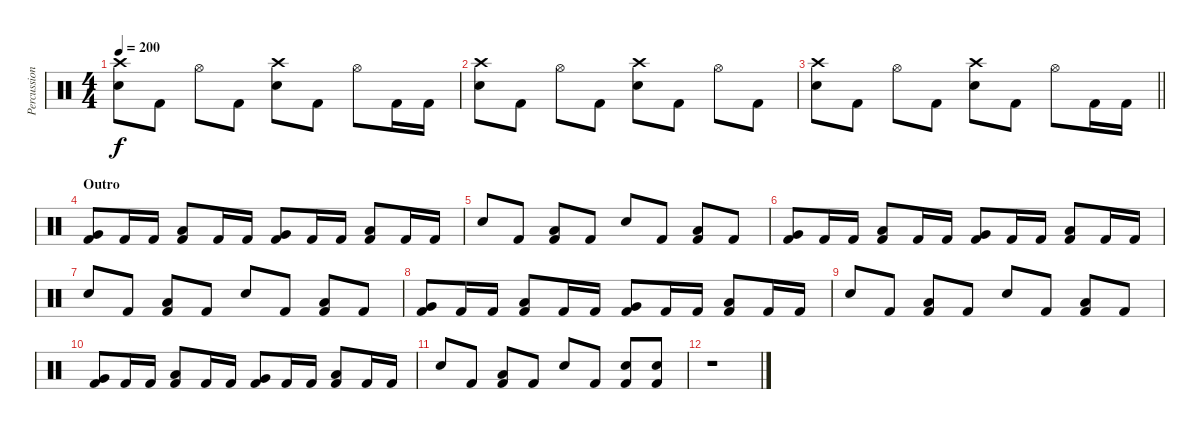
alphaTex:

\track ("Percussion" "Percussion") {instrument percussion}
\staff
\articulation defaults
\ts (4 4)
\tempo 200
\clef neutral
\ks c
("Crash high (hit)" "Electric Snare (hit)").8{dy f} "Kick (hit) 2".8 "Hi-Hat (open)".8 "Kick (hit) 2".8 ("Crash high (hit)" "Electric Snare (hit)").8 "Kick (hit) 2".8 "Hi-Hat (open)".8 "Kick (hit) 2".16 "Kick (hit) 2".16 |
("Crash high (hit)" "Electric Snare (hit)").8 "Kick (hit) 2".8 "Hi-Hat (open)".8 "Kick (hit) 2".8 ("Crash high (hit)" "Electric Snare (hit)").8 "Kick (hit) 2".8 "Hi-Hat (open)".8 "Kick (hit) 2".8 |
\barLineRight lightlight
("Crash high (hit)" "Electric Snare (hit)").8 "Kick (hit) 2".8 "Hi-Hat (open)".8 "Kick (hit) 2".8 ("Crash high (hit)" "Electric Snare (hit)").8 "Kick (hit) 2".8 "Hi-Hat (open)".8 "Kick (hit) 2".16 "Kick (hit) 2".16 |
\section ("" "Outro")
("Very Low Tom (hit)" "Kick (hit) 2").8 "Kick (hit) 2".16 "Kick (hit) 2".16 ("Low Floor Tom (hit)" "Kick (hit) 2").8 "Kick (hit) 2".16 "Kick (hit) 2".16 ("Very Low Tom (hit)" "Kick (hit) 2").8 "Kick (hit) 2".16 "Kick (hit) 2".16 ("Low Floor Tom (hit)" "Kick (hit) 2").8 "Kick (hit) 2".16 "Kick (hit) 2".16 |
"Electric Snare (hit)".8 "Kick (hit) 2".8 ("Low Floor Tom (hit)" "Kick (hit) 2").8 "Kick (hit) 2".8 "Electric Snare (hit)".8 "Kick (hit) 2".8 ("Low Floor Tom (hit)" "Kick (hit) 2").8 "Kick (hit) 2".8 |
("Very Low Tom (hit)" "Kick (hit) 2").8 "Kick (hit) 2".16 "Kick (hit) 2".16 ("Low Floor Tom (hit)" "Kick (hit) 2").8 "Kick (hit) 2".16 "Kick (hit) 2".16 ("Very Low Tom (hit)" "Kick (hit) 2").8 "Kick (hit) 2".16 "Kick (hit) 2".16 ("Low Floor Tom (hit)" "Kick (hit) 2").8 "Kick (hit) 2".16 "Kick (hit) 2".16 |
"Electric Snare (hit)".8 "Kick (hit) 2".8 ("Low Floor Tom (hit)" "Kick (hit) 2").8 "Kick (hit) 2".8 "Electric Snare (hit)".8 "Kick (hit) 2".8 ("Low Floor Tom (hit)" "Kick (hit) 2").8 "Kick (hit) 2".8 |
("Very Low Tom (hit)" "Kick (hit) 2").8 "Kick (hit) 2".16 "Kick (hit) 2".16 ("Low Floor Tom (hit)" "Kick (hit) 2").8 "Kick (hit) 2".16 "Kick (hit) 2".16 ("Very Low Tom (hit)" "Kick (hit) 2").8 "Kick (hit) 2".16 "Kick (hit) 2".16 ("Low Floor Tom (hit)" "Kick (hit) 2").8 "Kick (hit) 2".16 "Kick (hit) 2".16 |
"Electric Snare (hit)".8 "Kick (hit) 2".8 ("Low Floor Tom (hit)" "Kick (hit) 2").8 "Kick (hit) 2".8 "Electric Snare (hit)".8 "Kick (hit) 2".8 ("Low Floor Tom (hit)" "Kick (hit) 2").8 "Kick (hit) 2".8 |
("Very Low Tom (hit)" "Kick (hit) 2").8 "Kick (hit) 2".16 "Kick (hit) 2".16 ("Low Floor Tom (hit)" "Kick (hit) 2").8 "Kick (hit) 2".16 "Kick (hit) 2".16 ("Very Low Tom (hit)" "Kick (hit) 2").8 "Kick (hit) 2".16 "Kick (hit) 2".16 ("Low Floor Tom (hit)" "Kick (hit) 2").8 "Kick (hit) 2".16 "Kick (hit) 2".16 |
"Electric Snare (hit)".8 "Kick (hit) 2".8 ("Low Floor Tom (hit)" "Kick (hit) 2").8 "Kick (hit) 2".8 "Electric Snare (hit)".8 "Kick (hit) 2".8 ("Electric Snare (hit)" "Kick (hit) 2").8 ("Electric Snare (hit)" "Kick (hit) 2").8 |
r.1
